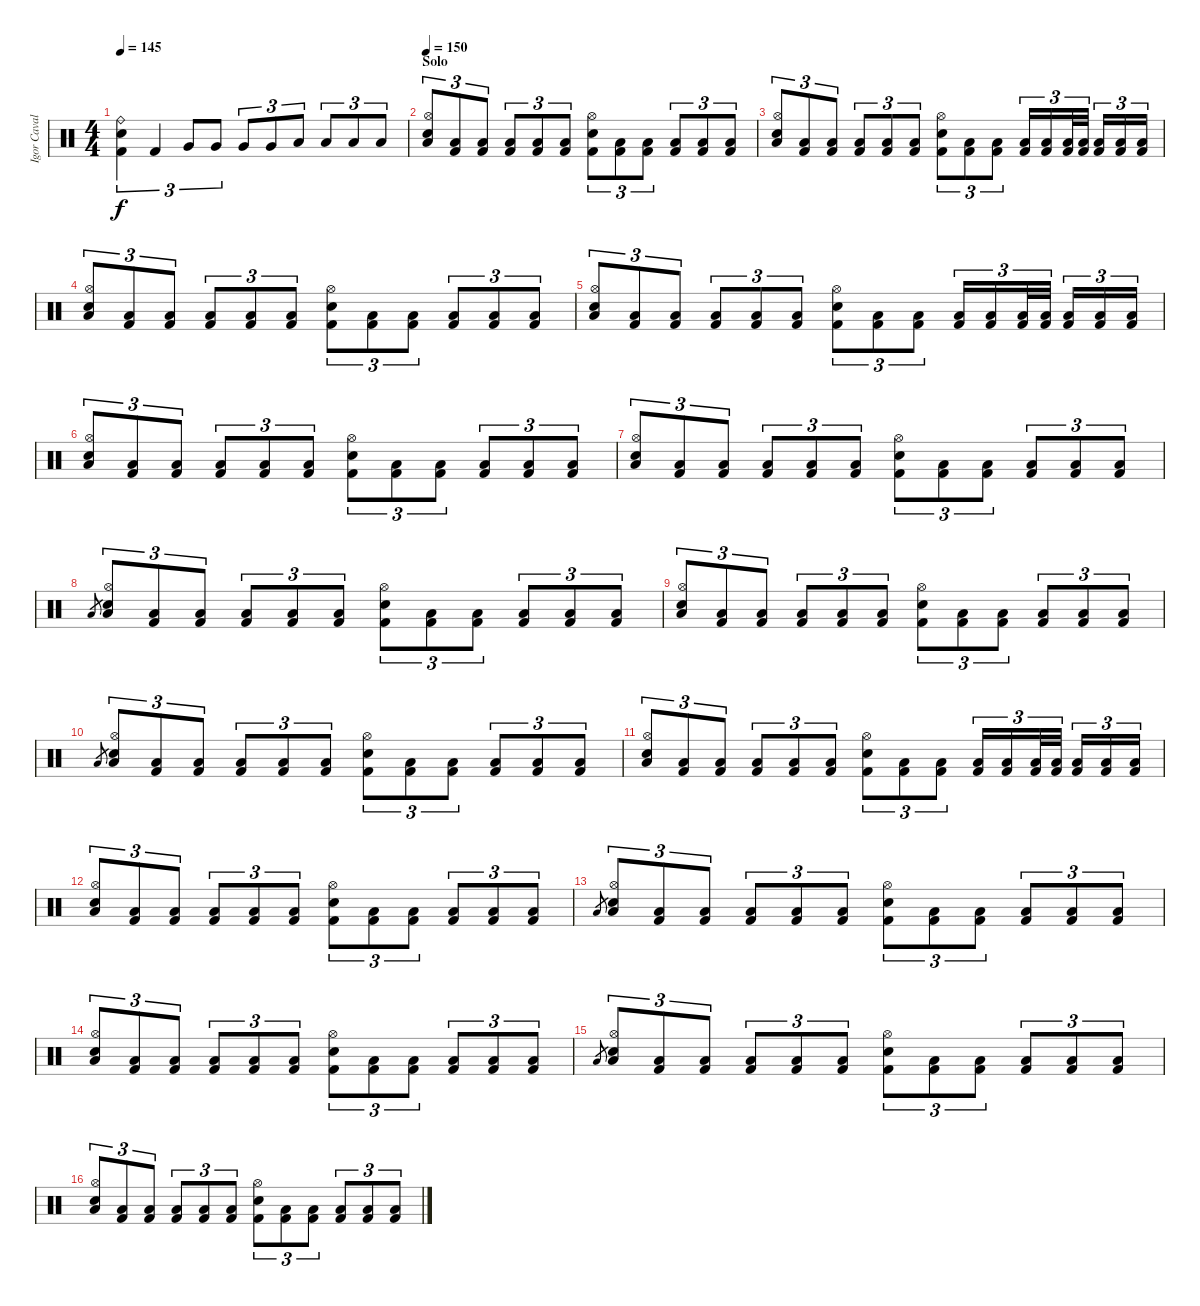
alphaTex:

\track ("Igor Cavalera - Drums" "Igor Caval") {instrument percussion}
\staff {score}
\articulation defaults
\ts (4 4)
\tempo 145
\clef neutral
\ks c
("Ride (bell)" "Electric Snare (hit)" "Kick (hit) 2").4{tu (3 2) dy f} "Kick (hit) 2".4{tu (3 2)} "Very Low Tom (hit)".8{tu (3 2)} "Very Low Tom (hit)".8{tu (3 2)} "Very Low Tom (hit)".8{tu (3 2)} "Very Low Tom (hit)".8{tu (3 2)} "Low Floor Tom (hit)".8{tu (3 2)} "Low Floor Tom (hit)".8{tu (3 2)} "Low Floor Tom (hit)".8{tu (3 2)} "Low Floor Tom (hit)".8{tu (3 2)} |
\section ("" "Solo")
\tempo 150
("Hi-Hat (open)" "Low Floor Tom (hit)" "Snare (hit) 2").8{tu (3 2)} ("Low Floor Tom (hit)" "Kick (hit) 2").8{tu (3 2)} ("Low Floor Tom (hit)" "Kick (hit) 2").8{tu (3 2)} ("Low Floor Tom (hit)" "Kick (hit) 2").8{tu (3 2)} ("Low Floor Tom (hit)" "Kick (hit) 2").8{tu (3 2)} ("Low Floor Tom (hit)" "Kick (hit) 2").8{tu (3 2)} ("Hi-Hat (open)" "Electric Snare (hit)" "Kick (hit) 2").8{tu (3 2)} ("Low Floor Tom (hit)" "Kick (hit) 2").8{tu (3 2)} ("Low Floor Tom (hit)" "Kick (hit) 2").8{tu (3 2)} ("Low Floor Tom (hit)" "Kick (hit) 2").8{tu (3 2)} ("Low Floor Tom (hit)" "Kick (hit) 2").8{tu (3 2)} ("Low Floor Tom (hit)" "Kick (hit) 2").8{tu (3 2)} |
("Hi-Hat (open)" "Low Floor Tom (hit)" "Snare (hit) 2").8{tu (3 2)} ("Low Floor Tom (hit)" "Kick (hit) 2").8{tu (3 2)} ("Low Floor Tom (hit)" "Kick (hit) 2").8{tu (3 2)} ("Low Floor Tom (hit)" "Kick (hit) 2").8{tu (3 2)} ("Low Floor Tom (hit)" "Kick (hit) 2").8{tu (3 2)} ("Low Floor Tom (hit)" "Kick (hit) 2").8{tu (3 2)} ("Hi-Hat (open)" "Electric Snare (hit)" "Kick (hit) 2").8{tu (3 2)} ("Low Floor Tom (hit)" "Kick (hit) 2").8{tu (3 2)} ("Low Floor Tom (hit)" "Kick (hit) 2").8{tu (3 2)} ("Low Floor Tom (hit)" "Kick (hit) 2").16{tu (3 2)} ("Low Floor Tom (hit)" "Kick (hit) 2").16{tu (3 2)} ("Low Floor Tom (hit)" "Kick (hit) 2").32{tu (3 2)} ("Low Floor Tom (hit)" "Kick (hit) 2").32{tu (3 2)} ("Low Floor Tom (hit)" "Kick (hit) 2").16{tu (3 2)} ("Low Floor Tom (hit)" "Kick (hit) 2").16{tu (3 2)} ("Low Floor Tom (hit)" "Kick (hit) 2").16{tu (3 2)} |
("Hi-Hat (open)" "Low Floor Tom (hit)" "Snare (hit) 2").8{tu (3 2)} ("Low Floor Tom (hit)" "Kick (hit) 2").8{tu (3 2)} ("Low Floor Tom (hit)" "Kick (hit) 2").8{tu (3 2)} ("Low Floor Tom (hit)" "Kick (hit) 2").8{tu (3 2)} ("Low Floor Tom (hit)" "Kick (hit) 2").8{tu (3 2)} ("Low Floor Tom (hit)" "Kick (hit) 2").8{tu (3 2)} ("Hi-Hat (open)" "Electric Snare (hit)" "Kick (hit) 2").8{tu (3 2)} ("Low Floor Tom (hit)" "Kick (hit) 2").8{tu (3 2)} ("Low Floor Tom (hit)" "Kick (hit) 2").8{tu (3 2)} ("Low Floor Tom (hit)" "Kick (hit) 2").8{tu (3 2)} ("Low Floor Tom (hit)" "Kick (hit) 2").8{tu (3 2)} ("Low Floor Tom (hit)" "Kick (hit) 2").8{tu (3 2)} |
("Hi-Hat (open)" "Low Floor Tom (hit)" "Snare (hit) 2").8{tu (3 2)} ("Low Floor Tom (hit)" "Kick (hit) 2").8{tu (3 2)} ("Low Floor Tom (hit)" "Kick (hit) 2").8{tu (3 2)} ("Low Floor Tom (hit)" "Kick (hit) 2").8{tu (3 2)} ("Low Floor Tom (hit)" "Kick (hit) 2").8{tu (3 2)} ("Low Floor Tom (hit)" "Kick (hit) 2").8{tu (3 2)} ("Hi-Hat (open)" "Electric Snare (hit)" "Kick (hit) 2").8{tu (3 2)} ("Low Floor Tom (hit)" "Kick (hit) 2").8{tu (3 2)} ("Low Floor Tom (hit)" "Kick (hit) 2").8{tu (3 2)} ("Low Floor Tom (hit)" "Kick (hit) 2").16{tu (3 2)} ("Low Floor Tom (hit)" "Kick (hit) 2").16{tu (3 2)} ("Low Floor Tom (hit)" "Kick (hit) 2").32{tu (3 2)} ("Low Floor Tom (hit)" "Kick (hit) 2").32{tu (3 2)} ("Low Floor Tom (hit)" "Kick (hit) 2").16{tu (3 2)} ("Low Floor Tom (hit)" "Kick (hit) 2").16{tu (3 2)} ("Low Floor Tom (hit)" "Kick (hit) 2").16{tu (3 2)} |
("Hi-Hat (open)" "Low Floor Tom (hit)" "Snare (hit) 2").8{tu (3 2)} ("Low Floor Tom (hit)" "Kick (hit) 2").8{tu (3 2)} ("Low Floor Tom (hit)" "Kick (hit) 2").8{tu (3 2)} ("Low Floor Tom (hit)" "Kick (hit) 2").8{tu (3 2)} ("Low Floor Tom (hit)" "Kick (hit) 2").8{tu (3 2)} ("Low Floor Tom (hit)" "Kick (hit) 2").8{tu (3 2)} ("Hi-Hat (open)" "Electric Snare (hit)" "Kick (hit) 2").8{tu (3 2)} ("Low Floor Tom (hit)" "Kick (hit) 2").8{tu (3 2)} ("Low Floor Tom (hit)" "Kick (hit) 2").8{tu (3 2)} ("Low Floor Tom (hit)" "Kick (hit) 2").8{tu (3 2)} ("Low Floor Tom (hit)" "Kick (hit) 2").8{tu (3 2)} ("Low Floor Tom (hit)" "Kick (hit) 2").8{tu (3 2)} |
("Hi-Hat (open)" "Low Floor Tom (hit)" "Snare (hit) 2").8{tu (3 2)} ("Low Floor Tom (hit)" "Kick (hit) 2").8{tu (3 2)} ("Low Floor Tom (hit)" "Kick (hit) 2").8{tu (3 2)} ("Low Floor Tom (hit)" "Kick (hit) 2").8{tu (3 2)} ("Low Floor Tom (hit)" "Kick (hit) 2").8{tu (3 2)} ("Low Floor Tom (hit)" "Kick (hit) 2").8{tu (3 2)} ("Hi-Hat (open)" "Electric Snare (hit)" "Kick (hit) 2").8{tu (3 2)} ("Low Floor Tom (hit)" "Kick (hit) 2").8{tu (3 2)} ("Low Floor Tom (hit)" "Kick (hit) 2").8{tu (3 2)} ("Low Floor Tom (hit)" "Kick (hit) 2").8{tu (3 2)} ("Low Floor Tom (hit)" "Kick (hit) 2").8{tu (3 2)} ("Low Floor Tom (hit)" "Kick (hit) 2").8{tu (3 2)} |
"Low Floor Tom (hit)".8{gr} ("Hi-Hat (open)" "Low Floor Tom (hit)" "Snare (hit) 2").8{tu (3 2)} ("Low Floor Tom (hit)" "Kick (hit) 2").8{tu (3 2)} ("Low Floor Tom (hit)" "Kick (hit) 2").8{tu (3 2)} ("Low Floor Tom (hit)" "Kick (hit) 2").8{tu (3 2)} ("Low Floor Tom (hit)" "Kick (hit) 2").8{tu (3 2)} ("Low Floor Tom (hit)" "Kick (hit) 2").8{tu (3 2)} ("Hi-Hat (open)" "Electric Snare (hit)" "Kick (hit) 2").8{tu (3 2)} ("Low Floor Tom (hit)" "Kick (hit) 2").8{tu (3 2)} ("Low Floor Tom (hit)" "Kick (hit) 2").8{tu (3 2)} ("Low Floor Tom (hit)" "Kick (hit) 2").8{tu (3 2)} ("Low Floor Tom (hit)" "Kick (hit) 2").8{tu (3 2)} ("Low Floor Tom (hit)" "Kick (hit) 2").8{tu (3 2)} |
("Hi-Hat (open)" "Low Floor Tom (hit)" "Snare (hit) 2").8{tu (3 2)} ("Low Floor Tom (hit)" "Kick (hit) 2").8{tu (3 2)} ("Low Floor Tom (hit)" "Kick (hit) 2").8{tu (3 2)} ("Low Floor Tom (hit)" "Kick (hit) 2").8{tu (3 2)} ("Low Floor Tom (hit)" "Kick (hit) 2").8{tu (3 2)} ("Low Floor Tom (hit)" "Kick (hit) 2").8{tu (3 2)} ("Hi-Hat (open)" "Electric Snare (hit)" "Kick (hit) 2").8{tu (3 2)} ("Low Floor Tom (hit)" "Kick (hit) 2").8{tu (3 2)} ("Low Floor Tom (hit)" "Kick (hit) 2").8{tu (3 2)} ("Low Floor Tom (hit)" "Kick (hit) 2").8{tu (3 2)} ("Low Floor Tom (hit)" "Kick (hit) 2").8{tu (3 2)} ("Low Floor Tom (hit)" "Kick (hit) 2").8{tu (3 2)} |
"Low Floor Tom (hit)".8{gr} ("Hi-Hat (open)" "Low Floor Tom (hit)" "Snare (hit) 2").8{tu (3 2)} ("Low Floor Tom (hit)" "Kick (hit) 2").8{tu (3 2)} ("Low Floor Tom (hit)" "Kick (hit) 2").8{tu (3 2)} ("Low Floor Tom (hit)" "Kick (hit) 2").8{tu (3 2)} ("Low Floor Tom (hit)" "Kick (hit) 2").8{tu (3 2)} ("Low Floor Tom (hit)" "Kick (hit) 2").8{tu (3 2)} ("Hi-Hat (open)" "Electric Snare (hit)" "Kick (hit) 2").8{tu (3 2)} ("Low Floor Tom (hit)" "Kick (hit) 2").8{tu (3 2)} ("Low Floor Tom (hit)" "Kick (hit) 2").8{tu (3 2)} ("Low Floor Tom (hit)" "Kick (hit) 2").8{tu (3 2)} ("Low Floor Tom (hit)" "Kick (hit) 2").8{tu (3 2)} ("Low Floor Tom (hit)" "Kick (hit) 2").8{tu (3 2)} |
("Hi-Hat (open)" "Low Floor Tom (hit)" "Snare (hit) 2").8{tu (3 2)} ("Low Floor Tom (hit)" "Kick (hit) 2").8{tu (3 2)} ("Low Floor Tom (hit)" "Kick (hit) 2").8{tu (3 2)} ("Low Floor Tom (hit)" "Kick (hit) 2").8{tu (3 2)} ("Low Floor Tom (hit)" "Kick (hit) 2").8{tu (3 2)} ("Low Floor Tom (hit)" "Kick (hit) 2").8{tu (3 2)} ("Hi-Hat (open)" "Electric Snare (hit)" "Kick (hit) 2").8{tu (3 2)} ("Low Floor Tom (hit)" "Kick (hit) 2").8{tu (3 2)} ("Low Floor Tom (hit)" "Kick (hit) 2").8{tu (3 2)} ("Low Floor Tom (hit)" "Kick (hit) 2").16{tu (3 2)} ("Low Floor Tom (hit)" "Kick (hit) 2").16{tu (3 2)} ("Low Floor Tom (hit)" "Kick (hit) 2").32{tu (3 2)} ("Low Floor Tom (hit)" "Kick (hit) 2").32{tu (3 2)} ("Low Floor Tom (hit)" "Kick (hit) 2").16{tu (3 2)} ("Low Floor Tom (hit)" "Kick (hit) 2").16{tu (3 2)} ("Low Floor Tom (hit)" "Kick (hit) 2").16{tu (3 2)} |
("Hi-Hat (open)" "Low Floor Tom (hit)" "Snare (hit) 2").8{tu (3 2)} ("Low Floor Tom (hit)" "Kick (hit) 2").8{tu (3 2)} ("Low Floor Tom (hit)" "Kick (hit) 2").8{tu (3 2)} ("Low Floor Tom (hit)" "Kick (hit) 2").8{tu (3 2)} ("Low Floor Tom (hit)" "Kick (hit) 2").8{tu (3 2)} ("Low Floor Tom (hit)" "Kick (hit) 2").8{tu (3 2)} ("Hi-Hat (open)" "Electric Snare (hit)" "Kick (hit) 2").8{tu (3 2)} ("Low Floor Tom (hit)" "Kick (hit) 2").8{tu (3 2)} ("Low Floor Tom (hit)" "Kick (hit) 2").8{tu (3 2)} ("Low Floor Tom (hit)" "Kick (hit) 2").8{tu (3 2)} ("Low Floor Tom (hit)" "Kick (hit) 2").8{tu (3 2)} ("Low Floor Tom (hit)" "Kick (hit) 2").8{tu (3 2)} |
"Low Floor Tom (hit)".8{gr} ("Hi-Hat (open)" "Low Floor Tom (hit)" "Snare (hit) 2").8{tu (3 2)} ("Low Floor Tom (hit)" "Kick (hit) 2").8{tu (3 2)} ("Low Floor Tom (hit)" "Kick (hit) 2").8{tu (3 2)} ("Low Floor Tom (hit)" "Kick (hit) 2").8{tu (3 2)} ("Low Floor Tom (hit)" "Kick (hit) 2").8{tu (3 2)} ("Low Floor Tom (hit)" "Kick (hit) 2").8{tu (3 2)} ("Hi-Hat (open)" "Electric Snare (hit)" "Kick (hit) 2").8{tu (3 2)} ("Low Floor Tom (hit)" "Kick (hit) 2").8{tu (3 2)} ("Low Floor Tom (hit)" "Kick (hit) 2").8{tu (3 2)} ("Low Floor Tom (hit)" "Kick (hit) 2").8{tu (3 2)} ("Low Floor Tom (hit)" "Kick (hit) 2").8{tu (3 2)} ("Low Floor Tom (hit)" "Kick (hit) 2").8{tu (3 2)} |
("Hi-Hat (open)" "Low Floor Tom (hit)" "Snare (hit) 2").8{tu (3 2)} ("Low Floor Tom (hit)" "Kick (hit) 2").8{tu (3 2)} ("Low Floor Tom (hit)" "Kick (hit) 2").8{tu (3 2)} ("Low Floor Tom (hit)" "Kick (hit) 2").8{tu (3 2)} ("Low Floor Tom (hit)" "Kick (hit) 2").8{tu (3 2)} ("Low Floor Tom (hit)" "Kick (hit) 2").8{tu (3 2)} ("Hi-Hat (open)" "Electric Snare (hit)" "Kick (hit) 2").8{tu (3 2)} ("Low Floor Tom (hit)" "Kick (hit) 2").8{tu (3 2)} ("Low Floor Tom (hit)" "Kick (hit) 2").8{tu (3 2)} ("Low Floor Tom (hit)" "Kick (hit) 2").8{tu (3 2)} ("Low Floor Tom (hit)" "Kick (hit) 2").8{tu (3 2)} ("Low Floor Tom (hit)" "Kick (hit) 2").8{tu (3 2)} |
"Low Floor Tom (hit)".8{gr} ("Hi-Hat (open)" "Low Floor Tom (hit)" "Snare (hit) 2").8{tu (3 2)} ("Low Floor Tom (hit)" "Kick (hit) 2").8{tu (3 2)} ("Low Floor Tom (hit)" "Kick (hit) 2").8{tu (3 2)} ("Low Floor Tom (hit)" "Kick (hit) 2").8{tu (3 2)} ("Low Floor Tom (hit)" "Kick (hit) 2").8{tu (3 2)} ("Low Floor Tom (hit)" "Kick (hit) 2").8{tu (3 2)} ("Hi-Hat (open)" "Electric Snare (hit)" "Kick (hit) 2").8{tu (3 2)} ("Low Floor Tom (hit)" "Kick (hit) 2").8{tu (3 2)} ("Low Floor Tom (hit)" "Kick (hit) 2").8{tu (3 2)} ("Low Floor Tom (hit)" "Kick (hit) 2").8{tu (3 2)} ("Low Floor Tom (hit)" "Kick (hit) 2").8{tu (3 2)} ("Low Floor Tom (hit)" "Kick (hit) 2").8{tu (3 2)} |
("Hi-Hat (open)" "Low Floor Tom (hit)" "Snare (hit) 2").8{tu (3 2)} ("Low Floor Tom (hit)" "Kick (hit) 2").8{tu (3 2)} ("Low Floor Tom (hit)" "Kick (hit) 2").8{tu (3 2)} ("Low Floor Tom (hit)" "Kick (hit) 2").8{tu (3 2)} ("Low Floor Tom (hit)" "Kick (hit) 2").8{tu (3 2)} ("Low Floor Tom (hit)" "Kick (hit) 2").8{tu (3 2)} ("Hi-Hat (open)" "Electric Snare (hit)" "Kick (hit) 2").8{tu (3 2)} ("Low Floor Tom (hit)" "Kick (hit) 2").8{tu (3 2)} ("Low Floor Tom (hit)" "Kick (hit) 2").8{tu (3 2)} ("Low Floor Tom (hit)" "Kick (hit) 2").8{tu (3 2)} ("Low Floor Tom (hit)" "Kick (hit) 2").8{tu (3 2)} ("Low Floor Tom (hit)" "Kick (hit) 2").8{tu (3 2)}
